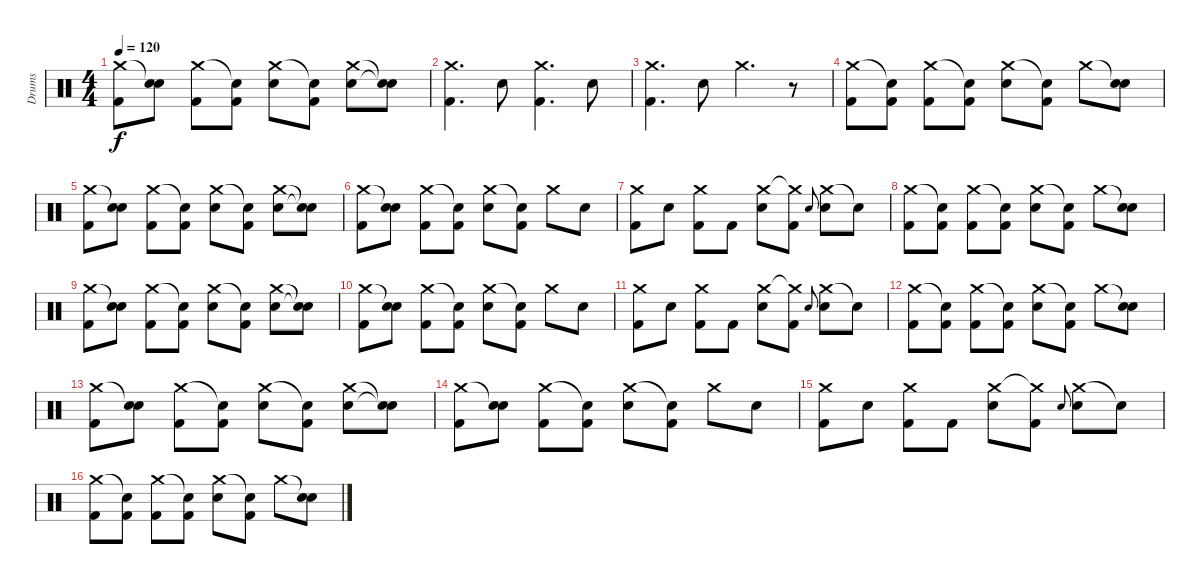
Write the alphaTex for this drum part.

\track ("Drums" "Drums") {instrument percussion}
\staff {score}
\articulation defaults
\ts (4 4)
\tempo 120
\clef neutral
\ks c
("Crash medium (hit)" "Kick (hit) 2").8{dy f} ("Snare (hit)"{t} "Electric Snare (hit)").8 ("Crash medium (hit)" "Kick (hit) 2").8 ("Snare (hit)"{t} "Kick (hit) 2").8 ("Crash medium (hit)" "Electric Snare (hit)").8 ("Snare (hit)"{t} "Kick (hit) 2").8 ("Crash medium (hit)" "Electric Snare (hit)").8 ("Snare (hit)"{t} "Electric Snare (hit)"{t}).8 |
("Crash medium (hit)" "Kick (hit) 2").4{d} "Electric Snare (hit)".8 ("Crash medium (hit)" "Kick (hit) 2").4{d} "Electric Snare (hit)".8 |
("Crash medium (hit)" "Kick (hit) 2").4{d} "Electric Snare (hit)".8 "Crash medium (hit)".4{d} r.8 |
("Crash medium (hit)" "Kick (hit) 2").8 ("Snare (hit)"{t} "Kick (hit) 2").8 ("Crash medium (hit)" "Kick (hit) 2").8 ("Snare (hit)"{t} "Kick (hit) 2").8 ("Crash medium (hit)" "Electric Snare (hit)").8 ("Snare (hit)"{t} "Kick (hit) 2").8 "Crash medium (hit)".8 ("Snare (hit)"{t} "Electric Snare (hit)").8 |
("Crash medium (hit)" "Kick (hit) 2").8 ("Snare (hit)"{t} "Electric Snare (hit)").8 ("Crash medium (hit)" "Kick (hit) 2").8 ("Snare (hit)"{t} "Kick (hit) 2").8 ("Crash medium (hit)" "Electric Snare (hit)").8 ("Snare (hit)"{t} "Kick (hit) 2").8 ("Crash medium (hit)" "Electric Snare (hit)").8 ("Snare (hit)"{t} "Electric Snare (hit)"{t}).8 |
("Crash medium (hit)" "Kick (hit) 2").8 ("Snare (hit)"{t} "Electric Snare (hit)").8 ("Crash medium (hit)" "Kick (hit) 2").8 ("Snare (hit)"{t} "Kick (hit) 2").8 ("Crash medium (hit)" "Electric Snare (hit)").8 ("Snare (hit)"{t} "Kick (hit) 2").8 "Crash medium (hit)".8 "Electric Snare (hit)".8 |
("Crash medium (hit)" "Kick (hit) 2").8 "Electric Snare (hit)".8 ("Crash medium (hit)" "Kick (hit) 2").8 "Kick (hit) 2".8 ("Crash medium (hit)" "Electric Snare (hit)").8 ("Crash medium (hit)"{t} "Kick (hit) 2").8 "Electric Snare (hit)".8{gr onbeat} ("Crash medium (hit)" "Electric Snare (hit)").8 "Snare (hit)"{t}.8 |
("Crash medium (hit)" "Kick (hit) 2").8 ("Snare (hit)"{t} "Kick (hit) 2").8 ("Crash medium (hit)" "Kick (hit) 2").8 ("Snare (hit)"{t} "Kick (hit) 2").8 ("Crash medium (hit)" "Electric Snare (hit)").8 ("Snare (hit)"{t} "Kick (hit) 2").8 "Crash medium (hit)".8 ("Snare (hit)"{t} "Electric Snare (hit)").8 |
("Crash medium (hit)" "Kick (hit) 2").8 ("Snare (hit)"{t} "Electric Snare (hit)").8 ("Crash medium (hit)" "Kick (hit) 2").8 ("Snare (hit)"{t} "Kick (hit) 2").8 ("Crash medium (hit)" "Electric Snare (hit)").8 ("Snare (hit)"{t} "Kick (hit) 2").8 ("Crash medium (hit)" "Electric Snare (hit)").8 ("Snare (hit)"{t} "Electric Snare (hit)"{t}).8 |
("Crash medium (hit)" "Kick (hit) 2").8 ("Snare (hit)"{t} "Electric Snare (hit)").8 ("Crash medium (hit)" "Kick (hit) 2").8 ("Snare (hit)"{t} "Kick (hit) 2").8 ("Crash medium (hit)" "Electric Snare (hit)").8 ("Snare (hit)"{t} "Kick (hit) 2").8 "Crash medium (hit)".8 "Electric Snare (hit)".8 |
("Crash medium (hit)" "Kick (hit) 2").8 "Electric Snare (hit)".8 ("Crash medium (hit)" "Kick (hit) 2").8 "Kick (hit) 2".8 ("Crash medium (hit)" "Electric Snare (hit)").8 ("Crash medium (hit)"{t} "Kick (hit) 2").8 "Electric Snare (hit)".8{gr onbeat} ("Crash medium (hit)" "Electric Snare (hit)").8 "Snare (hit)"{t}.8 |
("Crash medium (hit)" "Kick (hit) 2").8 ("Snare (hit)"{t} "Kick (hit) 2").8 ("Crash medium (hit)" "Kick (hit) 2").8 ("Snare (hit)"{t} "Kick (hit) 2").8 ("Crash medium (hit)" "Electric Snare (hit)").8 ("Snare (hit)"{t} "Kick (hit) 2").8 "Crash medium (hit)".8 ("Snare (hit)"{t} "Electric Snare (hit)").8 |
("Crash medium (hit)" "Kick (hit) 2").8 ("Snare (hit)"{t} "Electric Snare (hit)").8 ("Crash medium (hit)" "Kick (hit) 2").8 ("Snare (hit)"{t} "Kick (hit) 2").8 ("Crash medium (hit)" "Electric Snare (hit)").8 ("Snare (hit)"{t} "Kick (hit) 2").8 ("Crash medium (hit)" "Electric Snare (hit)").8 ("Snare (hit)"{t} "Electric Snare (hit)"{t}).8 |
("Crash medium (hit)" "Kick (hit) 2").8 ("Snare (hit)"{t} "Electric Snare (hit)").8 ("Crash medium (hit)" "Kick (hit) 2").8 ("Snare (hit)"{t} "Kick (hit) 2").8 ("Crash medium (hit)" "Electric Snare (hit)").8 ("Snare (hit)"{t} "Kick (hit) 2").8 "Crash medium (hit)".8 "Electric Snare (hit)".8 |
("Crash medium (hit)" "Kick (hit) 2").8 "Electric Snare (hit)".8 ("Crash medium (hit)" "Kick (hit) 2").8 "Kick (hit) 2".8 ("Crash medium (hit)" "Electric Snare (hit)").8 ("Crash medium (hit)"{t} "Kick (hit) 2").8 "Electric Snare (hit)".8{gr onbeat} ("Crash medium (hit)" "Electric Snare (hit)").8 "Snare (hit)"{t}.8 |
("Crash medium (hit)" "Kick (hit) 2").8 ("Snare (hit)"{t} "Kick (hit) 2").8 ("Crash medium (hit)" "Kick (hit) 2").8 ("Snare (hit)"{t} "Kick (hit) 2").8 ("Crash medium (hit)" "Electric Snare (hit)").8 ("Snare (hit)"{t} "Kick (hit) 2").8 "Crash medium (hit)".8 ("Snare (hit)"{t} "Electric Snare (hit)").8
